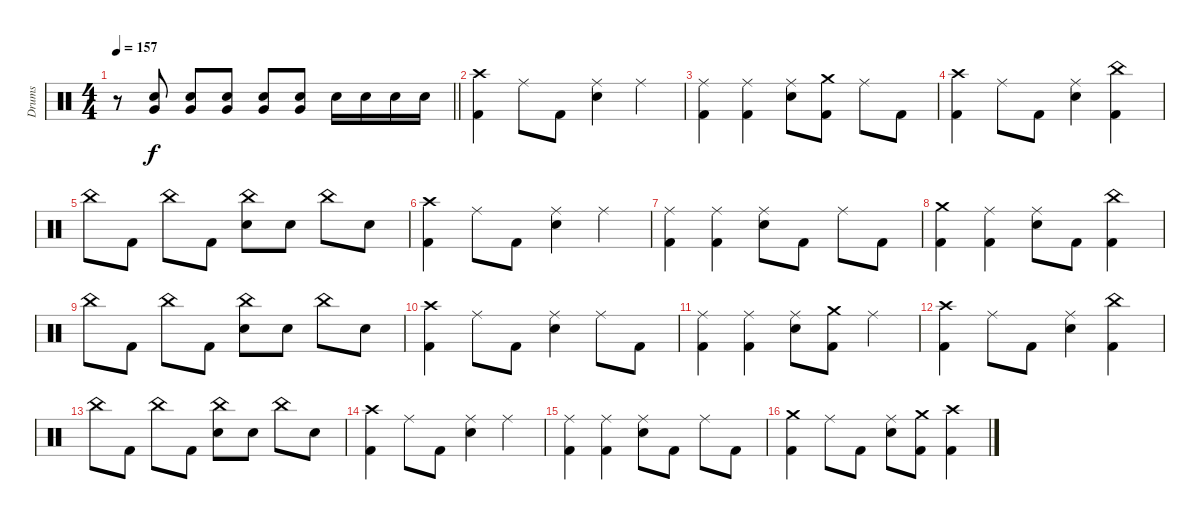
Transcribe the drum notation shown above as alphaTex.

\track ("Drums" "Drums") {instrument percussion}
\staff {score}
\articulation defaults
\ts (4 4)
\tempo 157
\clef neutral
\barLineRight lightlight
\ks c
r.8{dy f} ("Electric Snare (hit)" "Very Low Tom (hit)").8 ("Electric Snare (hit)" "Very Low Tom (hit)").8 ("Electric Snare (hit)" "Very Low Tom (hit)").8 ("Electric Snare (hit)" "Very Low Tom (hit)").8 ("Electric Snare (hit)" "Very Low Tom (hit)").8 "Electric Snare (hit)".16 "Electric Snare (hit)".16 "Electric Snare (hit)".16 "Electric Snare (hit)".16 |
\section ("" "")
("Crash high (hit)" "Kick (hit) 2").4 "Ride (middle)".8 "Kick (hit) 2".8 ("Ride (middle)" "Electric Snare (hit)").4 "Ride (middle)".4 |
("Ride (middle)" "Kick (hit) 2").4 ("Ride (middle)" "Kick (hit) 2").4 ("Ride (middle)" "Electric Snare (hit)").8 ("Crash medium (hit)" "Kick (hit) 2").8 "Ride (middle)".8 "Kick (hit) 2".8 |
("Crash high (hit)" "Kick (hit) 2").4 "Ride (middle)".8 "Kick (hit) 2".8 ("Ride (middle)" "Electric Snare (hit)").4 ("China (hit)" "Kick (hit) 2").4 |
"China (hit)".8 "Kick (hit) 2".8 "China (hit)".8 "Kick (hit) 2".8 ("China (hit)" "Electric Snare (hit)").8 "Electric Snare (hit)".8 "China (hit)".8 "Electric Snare (hit)".8 |
("Crash high (hit)" "Kick (hit) 2").4 "Ride (middle)".8 "Kick (hit) 2".8 ("Ride (middle)" "Electric Snare (hit)").4 "Ride (middle)".4 |
("Ride (middle)" "Kick (hit) 2").4 ("Ride (middle)" "Kick (hit) 2").4 ("Ride (middle)" "Electric Snare (hit)").8 "Kick (hit) 2".8 "Ride (middle)".8 "Kick (hit) 2".8 |
("Crash medium (hit)" "Kick (hit) 2").4 ("Ride (middle)" "Kick (hit) 2").4 ("Ride (middle)" "Electric Snare (hit)").8 "Kick (hit) 2".8 ("China (hit)" "Kick (hit) 2").4 |
"China (hit)".8 "Kick (hit) 2".8 "China (hit)".8 "Kick (hit) 2".8 ("China (hit)" "Electric Snare (hit)").8 "Electric Snare (hit)".8 "China (hit)".8 "Electric Snare (hit)".8 |
("Crash high (hit)" "Kick (hit) 2").4 "Ride (middle)".8 "Kick (hit) 2".8 ("Ride (middle)" "Electric Snare (hit)").4 "Ride (middle)".8 "Kick (hit) 2".8 |
("Ride (middle)" "Kick (hit) 2").4 ("Ride (middle)" "Kick (hit) 2").4 ("Ride (middle)" "Electric Snare (hit)").8 ("Crash medium (hit)" "Kick (hit) 2").8 "Ride (middle)".4 |
("Crash high (hit)" "Kick (hit) 2").4 "Ride (middle)".8 "Kick (hit) 2".8 ("Ride (middle)" "Electric Snare (hit)").4 ("China (hit)" "Kick (hit) 2").4 |
"China (hit)".8 "Kick (hit) 2".8 "China (hit)".8 "Kick (hit) 2".8 ("China (hit)" "Electric Snare (hit)").8 "Electric Snare (hit)".8 "China (hit)".8 "Electric Snare (hit)".8 |
("Crash high (hit)" "Kick (hit) 2").4 "Ride (middle)".8 "Kick (hit) 2".8 ("Ride (middle)" "Electric Snare (hit)").4 "Ride (middle)".4 |
("Ride (middle)" "Kick (hit) 2").4 ("Ride (middle)" "Kick (hit) 2").4 ("Ride (middle)" "Electric Snare (hit)").8 "Kick (hit) 2".8 "Ride (middle)".8 "Kick (hit) 2".8 |
("Crash medium (hit)" "Kick (hit) 2").4 "Ride (middle)".8 "Kick (hit) 2".8 ("Ride (middle)" "Electric Snare (hit)").8 ("Crash medium (hit)" "Kick (hit) 2").8 ("Crash high (hit)" "Kick (hit) 2").4
